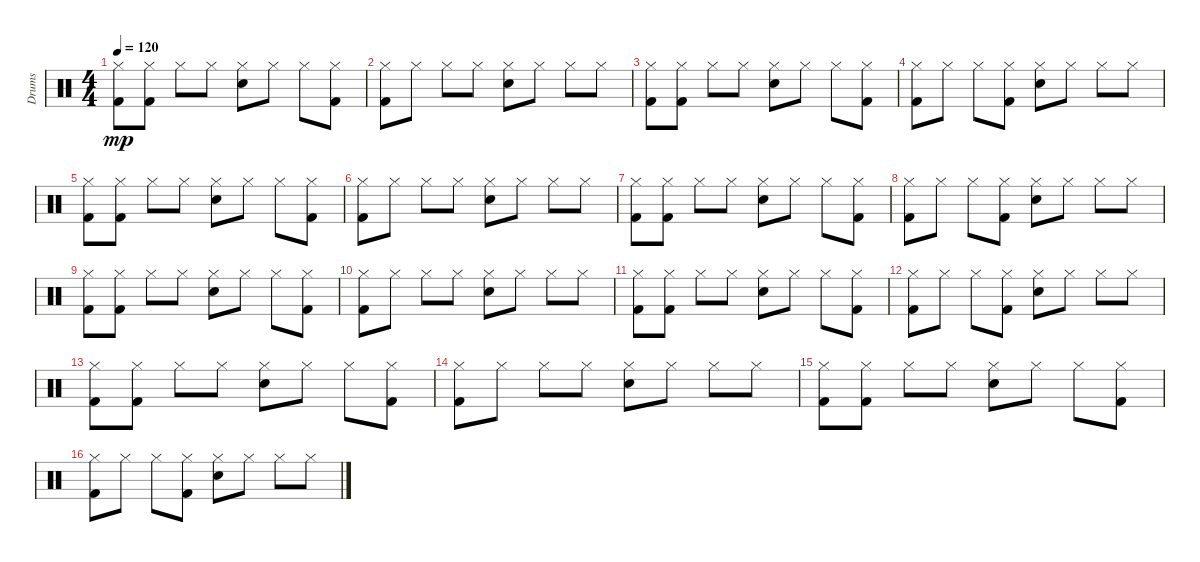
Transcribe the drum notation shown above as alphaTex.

\track ("Drums" "Drums") {instrument percussion}
\staff {score}
\articulation defaults
\ts (4 4)
\tempo 120
\clef neutral
\ks c
("Hi-Hat (closed)" "Kick (hit) 2").8{dy mp} ("Hi-Hat (closed)" "Kick (hit) 2").8 "Hi-Hat (closed)".8 "Hi-Hat (closed)".8 ("Hi-Hat (closed)" "Snare (hit) 2").8 "Hi-Hat (closed)".8 "Hi-Hat (closed)".8 ("Hi-Hat (closed)" "Kick (hit) 2").8 |
("Hi-Hat (closed)" "Kick (hit) 2").8 "Hi-Hat (closed)".8 "Hi-Hat (closed)".8 "Hi-Hat (closed)".8 ("Hi-Hat (closed)" "Snare (hit) 2").8 "Hi-Hat (closed)".8 "Hi-Hat (closed)".8 "Hi-Hat (closed)".8 |
("Hi-Hat (closed)" "Kick (hit) 2").8 ("Hi-Hat (closed)" "Kick (hit) 2").8 "Hi-Hat (closed)".8 "Hi-Hat (closed)".8 ("Hi-Hat (closed)" "Snare (hit) 2").8 "Hi-Hat (closed)".8 "Hi-Hat (closed)".8 ("Hi-Hat (closed)" "Kick (hit) 2").8 |
("Hi-Hat (closed)" "Kick (hit) 2").8 "Hi-Hat (closed)".8 "Hi-Hat (closed)".8 ("Hi-Hat (closed)" "Kick (hit) 2").8 ("Hi-Hat (closed)" "Snare (hit) 2").8 "Hi-Hat (closed)".8 "Hi-Hat (closed)".8 "Hi-Hat (closed)".8 |
("Hi-Hat (closed)" "Kick (hit) 2").8 ("Hi-Hat (closed)" "Kick (hit) 2").8 "Hi-Hat (closed)".8 "Hi-Hat (closed)".8 ("Hi-Hat (closed)" "Snare (hit) 2").8 "Hi-Hat (closed)".8 "Hi-Hat (closed)".8 ("Hi-Hat (closed)" "Kick (hit) 2").8 |
("Hi-Hat (closed)" "Kick (hit) 2").8 "Hi-Hat (closed)".8 "Hi-Hat (closed)".8 "Hi-Hat (closed)".8 ("Hi-Hat (closed)" "Snare (hit) 2").8 "Hi-Hat (closed)".8 "Hi-Hat (closed)".8 "Hi-Hat (closed)".8 |
("Hi-Hat (closed)" "Kick (hit) 2").8 ("Hi-Hat (closed)" "Kick (hit) 2").8 "Hi-Hat (closed)".8 "Hi-Hat (closed)".8 ("Hi-Hat (closed)" "Snare (hit) 2").8 "Hi-Hat (closed)".8 "Hi-Hat (closed)".8 ("Hi-Hat (closed)" "Kick (hit) 2").8 |
("Hi-Hat (closed)" "Kick (hit) 2").8 "Hi-Hat (closed)".8 "Hi-Hat (closed)".8 ("Hi-Hat (closed)" "Kick (hit) 2").8 ("Hi-Hat (closed)" "Snare (hit) 2").8 "Hi-Hat (closed)".8 "Hi-Hat (closed)".8 "Hi-Hat (closed)".8 |
("Hi-Hat (closed)" "Kick (hit) 2").8 ("Hi-Hat (closed)" "Kick (hit) 2").8 "Hi-Hat (closed)".8 "Hi-Hat (closed)".8 ("Hi-Hat (closed)" "Snare (hit) 2").8 "Hi-Hat (closed)".8 "Hi-Hat (closed)".8 ("Hi-Hat (closed)" "Kick (hit) 2").8 |
("Hi-Hat (closed)" "Kick (hit) 2").8 "Hi-Hat (closed)".8 "Hi-Hat (closed)".8 "Hi-Hat (closed)".8 ("Hi-Hat (closed)" "Snare (hit) 2").8 "Hi-Hat (closed)".8 "Hi-Hat (closed)".8 "Hi-Hat (closed)".8 |
("Hi-Hat (closed)" "Kick (hit) 2").8 ("Hi-Hat (closed)" "Kick (hit) 2").8 "Hi-Hat (closed)".8 "Hi-Hat (closed)".8 ("Hi-Hat (closed)" "Snare (hit) 2").8 "Hi-Hat (closed)".8 "Hi-Hat (closed)".8 ("Hi-Hat (closed)" "Kick (hit) 2").8 |
("Hi-Hat (closed)" "Kick (hit) 2").8 "Hi-Hat (closed)".8 "Hi-Hat (closed)".8 ("Hi-Hat (closed)" "Kick (hit) 2").8 ("Hi-Hat (closed)" "Snare (hit) 2").8 "Hi-Hat (closed)".8 "Hi-Hat (closed)".8 "Hi-Hat (closed)".8 |
("Hi-Hat (closed)" "Kick (hit) 2").8 ("Hi-Hat (closed)" "Kick (hit) 2").8 "Hi-Hat (closed)".8 "Hi-Hat (closed)".8 ("Hi-Hat (closed)" "Snare (hit) 2").8 "Hi-Hat (closed)".8 "Hi-Hat (closed)".8 ("Hi-Hat (closed)" "Kick (hit) 2").8 |
("Hi-Hat (closed)" "Kick (hit) 2").8 "Hi-Hat (closed)".8 "Hi-Hat (closed)".8 "Hi-Hat (closed)".8 ("Hi-Hat (closed)" "Snare (hit) 2").8 "Hi-Hat (closed)".8 "Hi-Hat (closed)".8 "Hi-Hat (closed)".8 |
("Hi-Hat (closed)" "Kick (hit) 2").8 ("Hi-Hat (closed)" "Kick (hit) 2").8 "Hi-Hat (closed)".8 "Hi-Hat (closed)".8 ("Hi-Hat (closed)" "Snare (hit) 2").8 "Hi-Hat (closed)".8 "Hi-Hat (closed)".8 ("Hi-Hat (closed)" "Kick (hit) 2").8 |
("Hi-Hat (closed)" "Kick (hit) 2").8 "Hi-Hat (closed)".8 "Hi-Hat (closed)".8 ("Hi-Hat (closed)" "Kick (hit) 2").8 ("Hi-Hat (closed)" "Snare (hit) 2").8 "Hi-Hat (closed)".8 "Hi-Hat (closed)".8 "Hi-Hat (closed)".8
